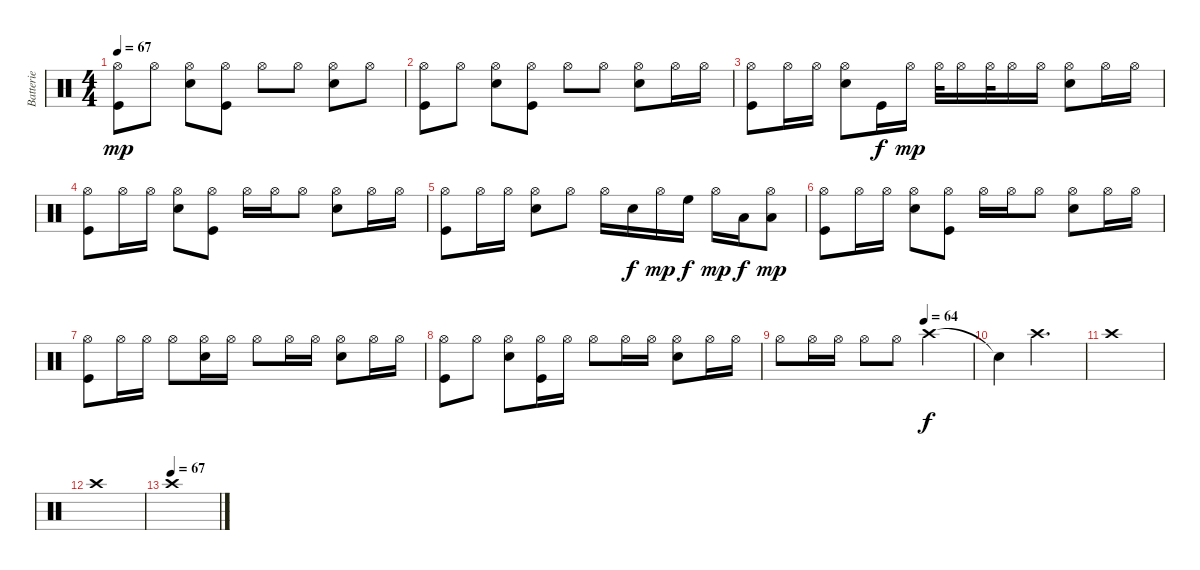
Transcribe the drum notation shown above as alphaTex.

\track ("Batterie" "Batterie") {instrument percussion}
\staff {score}
\articulation defaults
\ts (4 4)
\tempo 67
\clef neutral
\ks c
("Hi-Hat (open)" "Kick (hit)").8{dy mp} "Hi-Hat (open)".8 ("Hi-Hat (open)" "Snare (hit) 2").8 ("Hi-Hat (open)" "Kick (hit)").8 "Hi-Hat (open)".8 "Hi-Hat (open)".8 ("Hi-Hat (open)" "Snare (hit) 2").8 "Hi-Hat (open)".8 |
("Hi-Hat (open)" "Kick (hit)").8 "Hi-Hat (open)".8 ("Hi-Hat (open)" "Snare (hit) 2").8 ("Hi-Hat (open)" "Kick (hit)").8 "Hi-Hat (open)".8 "Hi-Hat (open)".8 ("Hi-Hat (open)" "Snare (hit) 2").8 "Hi-Hat (open)".16 "Hi-Hat (open)".16 |
("Hi-Hat (open)" "Kick (hit)").8 "Hi-Hat (open)".16 "Hi-Hat (open)".16 ("Hi-Hat (open)" "Snare (hit) 2").8 "Kick (hit)".16{dy f} "Hi-Hat (open)".16{dy mp} "Hi-Hat (open)".32 "Hi-Hat (open)".16 "Hi-Hat (open)".32 "Hi-Hat (open)".16 "Hi-Hat (open)".16 ("Hi-Hat (open)" "Snare (hit) 2").8 "Hi-Hat (open)".16 "Hi-Hat (open)".16 |
("Hi-Hat (open)" "Kick (hit)").8 "Hi-Hat (open)".16 "Hi-Hat (open)".16 ("Hi-Hat (open)" "Snare (hit) 2").8 ("Hi-Hat (open)" "Kick (hit)").8 "Hi-Hat (open)".16 "Hi-Hat (open)".16 "Hi-Hat (open)".8 ("Hi-Hat (open)" "Snare (hit) 2").8 "Hi-Hat (open)".16 "Hi-Hat (open)".16 |
("Hi-Hat (open)" "Kick (hit)").8 "Hi-Hat (open)".16 "Hi-Hat (open)".16 ("Hi-Hat (open)" "Snare (hit) 2").8 "Hi-Hat (open)".8 "Hi-Hat (open)".16 "Snare (hit) 2".16{dy f} "Hi-Hat (open)".16{dy mp} "High Floor Tom (hit)".16{dy f} "Hi-Hat (open)".16{dy mp} "Low Tom (hit)".16{dy f} ("Hi-Hat (open)" "Low Tom (hit)").8{dy mp} |
("Hi-Hat (open)" "Kick (hit)").8 "Hi-Hat (open)".16 "Hi-Hat (open)".16 ("Hi-Hat (open)" "Snare (hit) 2").8 ("Hi-Hat (open)" "Kick (hit)").8 "Hi-Hat (open)".16 "Hi-Hat (open)".16 "Hi-Hat (open)".8 ("Hi-Hat (open)" "Snare (hit) 2").8 "Hi-Hat (open)".16 "Hi-Hat (open)".16 |
("Hi-Hat (open)" "Kick (hit)").8 "Hi-Hat (open)".16 "Hi-Hat (open)".16 "Hi-Hat (open)".8 ("Hi-Hat (open)" "Snare (hit) 2").16 "Hi-Hat (open)".16 "Hi-Hat (open)".8 "Hi-Hat (open)".16 "Hi-Hat (open)".16 ("Hi-Hat (open)" "Snare (hit) 2").8 "Hi-Hat (open)".16 "Hi-Hat (open)".16 |
("Hi-Hat (open)" "Kick (hit)").8 "Hi-Hat (open)".8 ("Hi-Hat (open)" "Snare (hit) 2").8 ("Hi-Hat (open)" "Kick (hit)").16 "Hi-Hat (open)".16 "Hi-Hat (open)".8 "Hi-Hat (open)".16 "Hi-Hat (open)".16 ("Hi-Hat (open)" "Snare (hit) 2").8 "Hi-Hat (open)".16 "Hi-Hat (open)".16 |
\tempo (64 0.75)
"Hi-Hat (open)".8 "Hi-Hat (open)".16 "Hi-Hat (open)".16 "Hi-Hat (open)".8 "Hi-Hat (open)".8 "Crash high (hit)".2{dy f} |
"Snare (hit)"{t}.4 "Crash high (hit)".2{d} |
"Crash high (hit)".1 |
"Crash high (hit)".1 |
\tempo (67)
"Crash high (hit)".1
